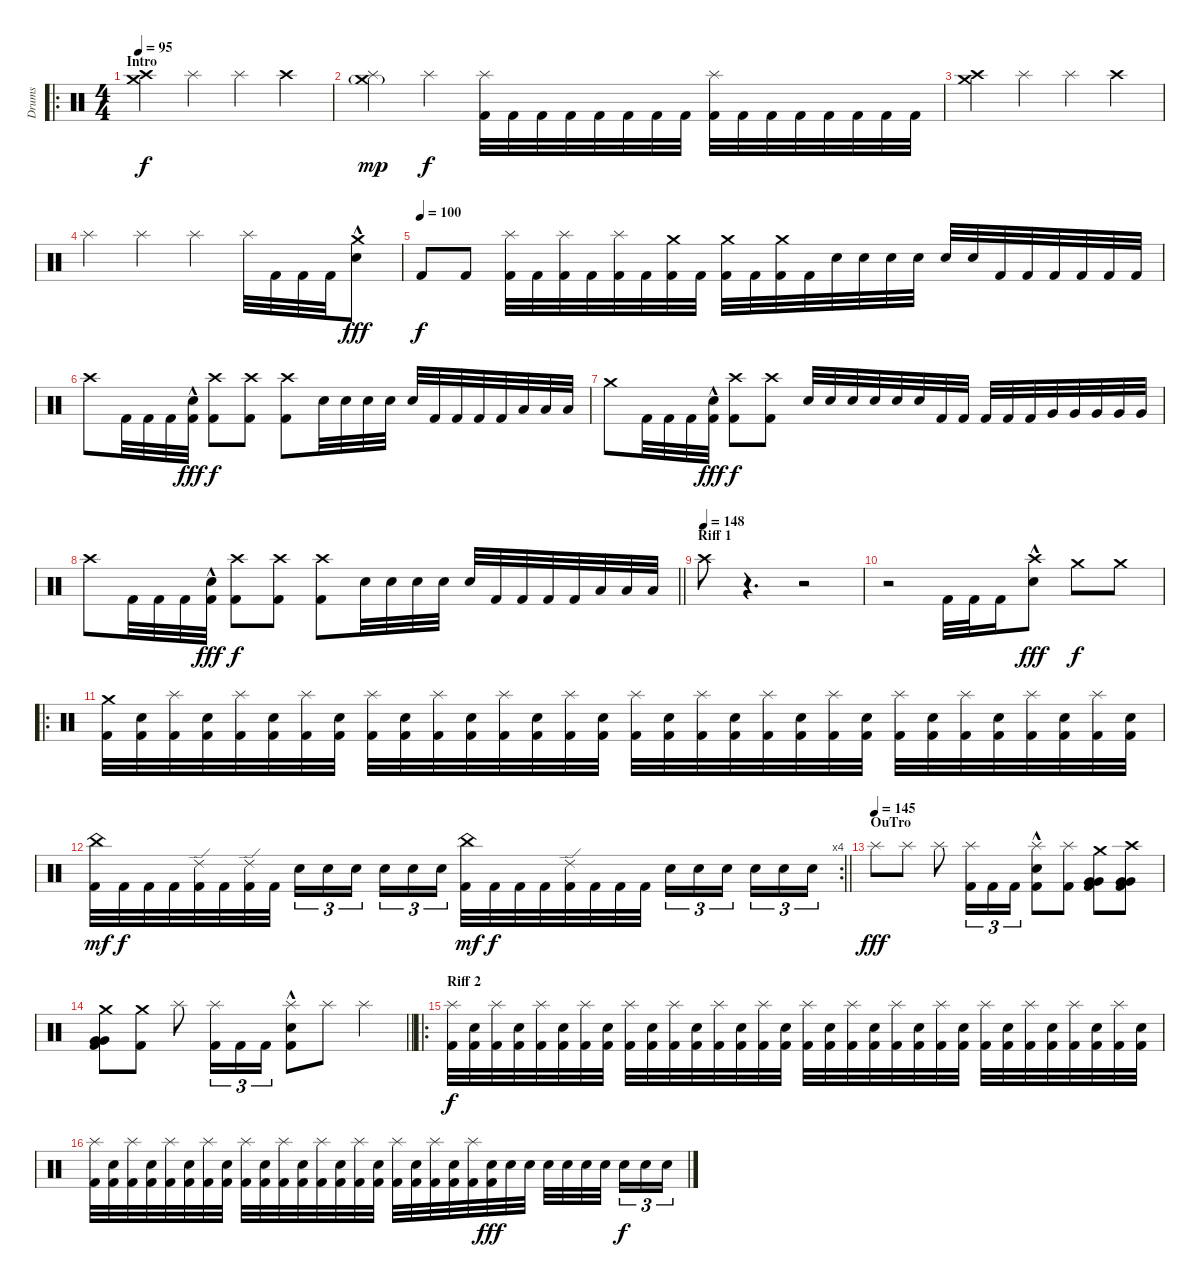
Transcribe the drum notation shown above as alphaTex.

\track ("Drums" "Drums") {instrument percussion}
\staff {score}
\articulation defaults
\ro
\ts (4 4)
\section ("" "Intro")
\tempo 95
\clef neutral
\ks c
("Crash high (hit)" "Crash medium (hit)").4{dy f} "Splash (hit)".4 "Splash (hit)".4 "Crash high (hit)".4 |
("Crash medium (hit)"{g} "Splash (hit)").4{dy mp} "Splash (hit)".4{dy f} ("Splash (hit)" "Kick (hit) 2").32 "Kick (hit) 2".32 "Kick (hit) 2".32 "Kick (hit) 2".32 "Kick (hit) 2".32 "Kick (hit) 2".32 "Kick (hit) 2".32 "Kick (hit) 2".32 ("Splash (hit)" "Kick (hit) 2").32 "Kick (hit) 2".32 "Kick (hit) 2".32 "Kick (hit) 2".32 "Kick (hit) 2".32 "Kick (hit) 2".32 "Kick (hit) 2".32 "Kick (hit) 2".32 |
("Crash high (hit)" "Crash medium (hit)").4 "Splash (hit)".4 "Splash (hit)".4 "Crash high (hit)".4 |
"Splash (hit)".4 "Splash (hit)".4 "Splash (hit)".4 "Splash (hit)".32 "Kick (hit) 2".32 "Kick (hit) 2".32 "Kick (hit) 2".32 ("Crash medium (hit)" "Electric Snare (hit)"{hac}).8{dy fff} |
\tempo (100)
"Kick (hit) 2".8{dy f} "Kick (hit) 2".8 ("Splash (hit)" "Kick (hit) 2").32 "Kick (hit) 2".32 ("Splash (hit)" "Kick (hit) 2").32 "Kick (hit) 2".32 ("Splash (hit)" "Kick (hit) 2").32 "Kick (hit) 2".32 ("Crash medium (hit)" "Kick (hit) 2").32 "Kick (hit) 2".32 ("Crash medium (hit)" "Kick (hit) 2").32 "Kick (hit) 2".32 ("Crash medium (hit)" "Kick (hit) 2").32 "Kick (hit) 2".32 "Electric Snare (hit)".32 "Electric Snare (hit)".32 "Electric Snare (hit)".32 "Electric Snare (hit)".32 "Electric Snare (hit)".32 "Electric Snare (hit)".32 "Kick (hit) 2".32 "Kick (hit) 2".32 "Kick (hit) 2".32 "Kick (hit) 2".32 "Kick (hit) 2".32 "Kick (hit) 2".32 |
"Crash high (hit)".8 "Kick (hit) 2".32 "Kick (hit) 2".32 "Kick (hit) 2".32 ("Electric Snare (hit)"{hac} "Kick (hit) 2").32{dy fff} ("Crash high (hit)" "Kick (hit) 2").8{dy f} ("Crash high (hit)" "Kick (hit) 2").8 ("Crash high (hit)" "Kick (hit) 2").8 "Electric Snare (hit)".32 "Electric Snare (hit)".32 "Electric Snare (hit)".32 "Electric Snare (hit)".32 "Electric Snare (hit)".32 "Kick (hit) 2".32 "Kick (hit) 2".32 "Kick (hit) 2".32 "Kick (hit) 2".32 "Low Tom (hit)".32 "Low Tom (hit)".32 "Low Tom (hit)".32 |
"Crash medium (hit)".8 "Kick (hit) 2".32 "Kick (hit) 2".32 "Kick (hit) 2".32 ("Electric Snare (hit)"{hac} "Kick (hit) 2").32{dy fff} ("Crash high (hit)" "Kick (hit) 2").8{dy f} ("Crash high (hit)" "Kick (hit) 2").8 "Electric Snare (hit)".32 "Electric Snare (hit)".32 "Electric Snare (hit)".32 "Electric Snare (hit)".32 "Electric Snare (hit)".32 "Electric Snare (hit)".32 "Kick (hit) 2".32 "Kick (hit) 2".32 "Kick (hit) 2".32 "Kick (hit) 2".32 "Kick (hit) 2".32 "Very Low Tom (hit)".32 "Very Low Tom (hit)".32 "Very Low Tom (hit)".32 "Very Low Tom (hit)".32 "Very Low Tom (hit)".32 |
\barLineRight lightlight "Crash high (hit)".8 "Kick (hit) 2".32 "Kick (hit) 2".32 "Kick (hit) 2".32
("Electric Snare (hit)"{hac} "Kick (hit) 2").32{dy fff} ("Crash high (hit)" "Kick (hit) 2").8{dy f} ("Crash high (hit)" "Kick (hit) 2").8 ("Crash high (hit)" "Kick (hit) 2").8 "Electric Snare (hit)".32 "Electric Snare (hit)".32 "Electric Snare (hit)".32 "Electric Snare (hit)".32 "Electric Snare (hit)".32 "Kick (hit) 2".32 "Kick (hit) 2".32 "Kick (hit) 2".32 "Kick (hit) 2".32 "Low Tom (hit)".32 "Low Tom (hit)".32 "Low Tom (hit)".32 |
\section ("" "Riff 1")
\tempo (148)
"Crash high (hit)".8 r.4{d} r.2 |
r.2 "Kick (hit) 2".32 "Kick (hit) 2".32 "Kick (hit) 2".16 ("Crash high (hit)" "Electric Snare (hit)"{hac}).8{dy fff} "Crash medium (hit)".8{dy f} "Crash medium (hit)".8 |
\ro
("Crash medium (hit)" "Kick (hit) 2").32 ("Electric Snare (hit)" "Kick (hit) 2").32 ("Splash (hit)" "Kick (hit) 2").32 ("Electric Snare (hit)" "Kick (hit) 2").32 ("Splash (hit)" "Kick (hit) 2").32 ("Electric Snare (hit)" "Kick (hit) 2").32 ("Splash (hit)" "Kick (hit) 2").32 ("Electric Snare (hit)" "Kick (hit) 2").32 ("Splash (hit)" "Kick (hit) 2").32 ("Electric Snare (hit)" "Kick (hit) 2").32 ("Splash (hit)" "Kick (hit) 2").32 ("Electric Snare (hit)" "Kick (hit) 2").32 ("Splash (hit)" "Kick (hit) 2").32 ("Electric Snare (hit)" "Kick (hit) 2").32 ("Splash (hit)" "Kick (hit) 2").32 ("Electric Snare (hit)" "Kick (hit) 2").32 ("Splash (hit)" "Kick (hit) 2").32 ("Electric Snare (hit)" "Kick (hit) 2").32 ("Splash (hit)" "Kick (hit) 2").32 ("Electric Snare (hit)" "Kick (hit) 2").32 ("Splash (hit)" "Kick (hit) 2").32 ("Electric Snare (hit)" "Kick (hit) 2").32 ("Splash (hit)" "Kick (hit) 2").32 ("Electric Snare (hit)" "Kick (hit) 2").32 ("Splash (hit)" "Kick (hit) 2").32 ("Electric Snare (hit)" "Kick (hit) 2").32 ("Splash (hit)" "Kick (hit) 2").32 ("Electric Snare (hit)" "Kick (hit) 2").32 ("Splash (hit)" "Kick (hit) 2").32 ("Electric Snare (hit)" "Kick (hit) 2").32 ("Splash (hit)" "Kick (hit) 2").32 ("Electric Snare (hit)" "Kick (hit) 2").32 |
\rc 4
\barLineRight lightlight
("China (hit)" "Kick (hit) 2").32{dy mf} "Kick (hit) 2".32{dy f} "Kick (hit) 2".32 "Kick (hit) 2".32 ("Ride (edge) 2" "Kick (hit) 2").32 "Kick (hit) 2".32 ("Ride (edge) 2" "Kick (hit) 2").32 "Kick (hit) 2".32 "Electric Snare (hit)".16{tu (3 2)} "Electric Snare (hit)".16{tu (3 2)} "Electric Snare (hit)".16{tu (3 2) beam splitsecondary} "Electric Snare (hit)".16{tu (3 2)} "Electric Snare (hit)".16{tu (3 2)} "Electric Snare (hit)".16{tu (3 2)} ("China (hit)" "Kick (hit) 2").32{dy mf} "Kick (hit) 2".32{dy f} "Kick (hit) 2".32 "Kick (hit) 2".32 ("Ride (edge) 2" "Kick (hit) 2").32 "Kick (hit) 2".32 "Kick (hit) 2".32 "Kick (hit) 2".32 "Electric Snare (hit)".16{tu (3 2)} "Electric Snare (hit)".16{tu (3 2)} "Electric Snare (hit)".16{tu (3 2) beam splitsecondary} "Electric Snare (hit)".16{tu (3 2)} "Electric Snare (hit)".16{tu (3 2)} "Electric Snare (hit)".16{tu (3 2)} |
\section ("" "OuTro")
\tempo (145)
"Splash (hit)".8{dy fff} "Splash (hit)".8 "Splash (hit)".8 ("Splash (hit)" "Kick (hit) 2").16{tu (3 2)} "Kick (hit) 2".16{tu (3 2)} "Kick (hit) 2".16{tu (3 2)} ("Splash (hit)" "Electric Snare (hit)"{hac} "Kick (hit) 2").8 ("Splash (hit)" "Kick (hit) 2").8 ("Crash medium (hit)" "Very Low Tom (hit)" "Very Low Tom (hit)" "Kick (hit) 2").8 ("Crash high (hit)" "Very Low Tom (hit)" "Very Low Tom (hit)" "Kick (hit) 2").8 |
\barLineRight lightlight
("Crash medium (hit)" "Very Low Tom (hit)" "Very Low Tom (hit)" "Kick (hit) 2").8 ("Crash medium (hit)" "Kick (hit) 2").8 "Splash (hit)".8 ("Splash (hit)" "Kick (hit) 2").16{tu (3 2)} "Kick (hit) 2".16{tu (3 2)} "Kick (hit) 2".16{tu (3 2)} ("Splash (hit)" "Electric Snare (hit)"{hac} "Kick (hit) 2").8 "Splash (hit)".8 "Splash (hit)".4 |
\ro
\section ("" "Riff 2")
("Splash (hit)" "Kick (hit) 2").32{dy f} ("Electric Snare (hit)" "Kick (hit) 2").32 ("Splash (hit)" "Kick (hit) 2").32 ("Electric Snare (hit)" "Kick (hit) 2").32 ("Splash (hit)" "Kick (hit) 2").32 ("Electric Snare (hit)" "Kick (hit) 2").32 ("Splash (hit)" "Kick (hit) 2").32 ("Electric Snare (hit)" "Kick (hit) 2").32 ("Splash (hit)" "Kick (hit) 2").32 ("Electric Snare (hit)" "Kick (hit) 2").32 ("Splash (hit)" "Kick (hit) 2").32 ("Electric Snare (hit)" "Kick (hit) 2").32 ("Splash (hit)" "Kick (hit) 2").32 ("Electric Snare (hit)" "Kick (hit) 2").32 ("Splash (hit)" "Kick (hit) 2").32 ("Electric Snare (hit)" "Kick (hit) 2").32 ("Splash (hit)" "Kick (hit) 2").32 ("Electric Snare (hit)" "Kick (hit) 2").32 ("Splash (hit)" "Kick (hit) 2").32 ("Electric Snare (hit)" "Kick (hit) 2").32 ("Splash (hit)" "Kick (hit) 2").32 ("Electric Snare (hit)" "Kick (hit) 2").32 ("Splash (hit)" "Kick (hit) 2").32 ("Electric Snare (hit)" "Kick (hit) 2").32 ("Splash (hit)" "Kick (hit) 2").32 ("Electric Snare (hit)" "Kick (hit) 2").32 ("Splash (hit)" "Kick (hit) 2").32 ("Electric Snare (hit)" "Kick (hit) 2").32 ("Splash (hit)" "Kick (hit) 2").32 ("Electric Snare (hit)" "Kick (hit) 2").32 ("Splash (hit)" "Kick (hit) 2").32 ("Electric Snare (hit)" "Kick (hit) 2").32 |
("Splash (hit)" "Kick (hit) 2").32 ("Electric Snare (hit)" "Kick (hit) 2").32 ("Splash (hit)" "Kick (hit) 2").32 ("Electric Snare (hit)" "Kick (hit) 2").32 ("Splash (hit)" "Kick (hit) 2").32 ("Electric Snare (hit)" "Kick (hit) 2").32 ("Splash (hit)" "Kick (hit) 2").32 ("Electric Snare (hit)" "Kick (hit) 2").32 ("Splash (hit)" "Kick (hit) 2").32 ("Electric Snare (hit)" "Kick (hit) 2").32 ("Splash (hit)" "Kick (hit) 2").32 ("Electric Snare (hit)" "Kick (hit) 2").32 ("Splash (hit)" "Kick (hit) 2").32 ("Electric Snare (hit)" "Kick (hit) 2").32 ("Splash (hit)" "Kick (hit) 2").32 ("Electric Snare (hit)" "Kick (hit) 2").32 ("Splash (hit)" "Kick (hit) 2").32 ("Electric Snare (hit)" "Kick (hit) 2").32 ("Splash (hit)" "Kick (hit) 2").32 ("Electric Snare (hit)" "Kick (hit) 2").32 ("Splash (hit)" "Kick (hit) 2").32 ("Electric Snare (hit)" "Kick (hit) 2").32{dy fff} "Electric Snare (hit)".32 "Electric Snare (hit)".32 "Electric Snare (hit)".32 "Electric Snare (hit)".32 "Electric Snare (hit)".32 "Electric Snare (hit)".32{beam splitsecondary} "Electric Snare (hit)".16{tu (3 2) dy f} "Electric Snare (hit)".16{tu (3 2)} "Electric Snare (hit)".16{tu (3 2)}
